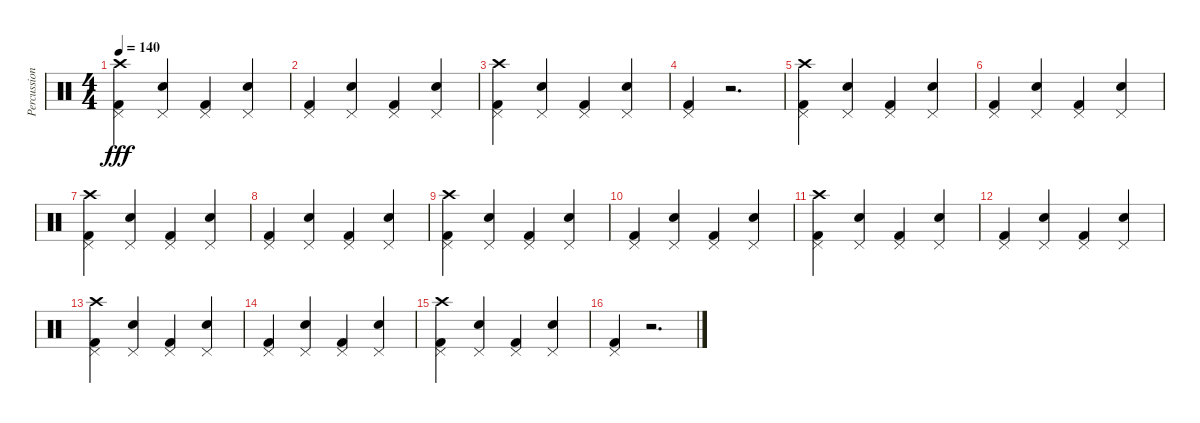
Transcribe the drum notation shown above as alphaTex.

\track ("Percussions" "Percussion") {instrument percussion}
\staff {score}
\articulation defaults
\ts (4 4)
\tempo 140
\clef neutral
\ks c
("Crash high (hit)" "Pedal Hi-Hat (hit)" "Kick (hit) 2").4{dy fff} ("Pedal Hi-Hat (hit)" "Snare (hit) 2").4 ("Pedal Hi-Hat (hit)" "Kick (hit) 2").4 ("Pedal Hi-Hat (hit)" "Snare (hit) 2").4 |
("Pedal Hi-Hat (hit)" "Kick (hit) 2").4 ("Pedal Hi-Hat (hit)" "Snare (hit) 2").4 ("Pedal Hi-Hat (hit)" "Kick (hit) 2").4 ("Pedal Hi-Hat (hit)" "Snare (hit) 2").4 |
("Crash high (hit)" "Pedal Hi-Hat (hit)" "Kick (hit) 2").4 ("Pedal Hi-Hat (hit)" "Snare (hit) 2").4 ("Pedal Hi-Hat (hit)" "Kick (hit) 2").4 ("Pedal Hi-Hat (hit)" "Snare (hit) 2").4 |
("Pedal Hi-Hat (hit)" "Kick (hit) 2").4 r.2{d} |
("Crash high (hit)" "Pedal Hi-Hat (hit)" "Kick (hit) 2").4 ("Pedal Hi-Hat (hit)" "Snare (hit) 2").4 ("Pedal Hi-Hat (hit)" "Kick (hit) 2").4 ("Pedal Hi-Hat (hit)" "Snare (hit) 2").4 |
("Pedal Hi-Hat (hit)" "Kick (hit) 2").4 ("Pedal Hi-Hat (hit)" "Snare (hit) 2").4 ("Pedal Hi-Hat (hit)" "Kick (hit) 2").4 ("Pedal Hi-Hat (hit)" "Snare (hit) 2").4 |
("Crash high (hit)" "Pedal Hi-Hat (hit)" "Kick (hit) 2").4 ("Pedal Hi-Hat (hit)" "Snare (hit) 2").4 ("Pedal Hi-Hat (hit)" "Kick (hit) 2").4 ("Pedal Hi-Hat (hit)" "Snare (hit) 2").4 |
("Pedal Hi-Hat (hit)" "Kick (hit) 2").4 ("Pedal Hi-Hat (hit)" "Snare (hit) 2").4 ("Pedal Hi-Hat (hit)" "Kick (hit) 2").4 ("Pedal Hi-Hat (hit)" "Snare (hit) 2").4 |
("Crash high (hit)" "Pedal Hi-Hat (hit)" "Kick (hit) 2").4 ("Pedal Hi-Hat (hit)" "Snare (hit) 2").4 ("Pedal Hi-Hat (hit)" "Kick (hit) 2").4 ("Pedal Hi-Hat (hit)" "Snare (hit) 2").4 |
("Pedal Hi-Hat (hit)" "Kick (hit) 2").4 ("Pedal Hi-Hat (hit)" "Snare (hit) 2").4 ("Pedal Hi-Hat (hit)" "Kick (hit) 2").4 ("Pedal Hi-Hat (hit)" "Snare (hit) 2").4 |
("Crash high (hit)" "Pedal Hi-Hat (hit)" "Kick (hit) 2").4 ("Pedal Hi-Hat (hit)" "Snare (hit) 2").4 ("Pedal Hi-Hat (hit)" "Kick (hit) 2").4 ("Pedal Hi-Hat (hit)" "Snare (hit) 2").4 |
("Pedal Hi-Hat (hit)" "Kick (hit) 2").4 ("Pedal Hi-Hat (hit)" "Snare (hit) 2").4 ("Pedal Hi-Hat (hit)" "Kick (hit) 2").4 ("Pedal Hi-Hat (hit)" "Snare (hit) 2").4 |
("Crash high (hit)" "Pedal Hi-Hat (hit)" "Kick (hit) 2").4 ("Pedal Hi-Hat (hit)" "Snare (hit) 2").4 ("Pedal Hi-Hat (hit)" "Kick (hit) 2").4 ("Pedal Hi-Hat (hit)" "Snare (hit) 2").4 |
("Pedal Hi-Hat (hit)" "Kick (hit) 2").4 ("Pedal Hi-Hat (hit)" "Snare (hit) 2").4 ("Pedal Hi-Hat (hit)" "Kick (hit) 2").4 ("Pedal Hi-Hat (hit)" "Snare (hit) 2").4 |
("Crash high (hit)" "Pedal Hi-Hat (hit)" "Kick (hit) 2").4 ("Pedal Hi-Hat (hit)" "Snare (hit) 2").4 ("Pedal Hi-Hat (hit)" "Kick (hit) 2").4 ("Pedal Hi-Hat (hit)" "Snare (hit) 2").4 |
("Pedal Hi-Hat (hit)" "Kick (hit) 2").4 r.2{d}
